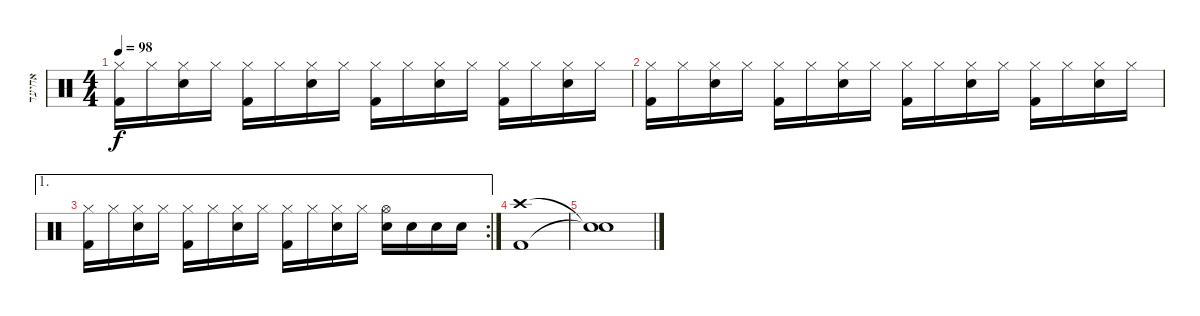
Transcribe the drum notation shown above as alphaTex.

\track ("אחיעד" "אחיעד") {instrument percussion}
\staff {score}
\articulation defaults
\ts (4 4)
\tempo 98
\clef neutral
\ks c
("Hi-Hat (closed)" "Kick (hit) 2").16{dy f} "Hi-Hat (closed)".16 ("Hi-Hat (closed)" "Snare (hit) 2").16 "Hi-Hat (closed)".16 ("Hi-Hat (closed)" "Kick (hit) 2").16 "Hi-Hat (closed)".16 ("Hi-Hat (closed)" "Snare (hit) 2").16 "Hi-Hat (closed)".16 ("Hi-Hat (closed)" "Kick (hit) 2").16 "Hi-Hat (closed)".16 ("Hi-Hat (closed)" "Snare (hit) 2").16 "Hi-Hat (closed)".16 ("Hi-Hat (closed)" "Kick (hit) 2").16 "Hi-Hat (closed)".16 ("Hi-Hat (closed)" "Snare (hit) 2").16 "Hi-Hat (closed)".16 |
("Hi-Hat (closed)" "Kick (hit) 2").16 "Hi-Hat (closed)".16 ("Hi-Hat (closed)" "Snare (hit) 2").16 "Hi-Hat (closed)".16 ("Hi-Hat (closed)" "Kick (hit) 2").16 "Hi-Hat (closed)".16 ("Hi-Hat (closed)" "Snare (hit) 2").16 "Hi-Hat (closed)".16 ("Hi-Hat (closed)" "Kick (hit) 2").16 "Hi-Hat (closed)".16 ("Hi-Hat (closed)" "Snare (hit) 2").16 "Hi-Hat (closed)".16 ("Hi-Hat (closed)" "Kick (hit) 2").16 "Hi-Hat (closed)".16 ("Hi-Hat (closed)" "Snare (hit) 2").16 "Hi-Hat (closed)".16 |
\ae 1
\rc 2
("Hi-Hat (closed)" "Kick (hit) 2").16 "Hi-Hat (closed)".16 ("Hi-Hat (closed)" "Snare (hit) 2").16 "Hi-Hat (closed)".16 ("Hi-Hat (closed)" "Kick (hit) 2").16 "Hi-Hat (closed)".16 ("Hi-Hat (closed)" "Snare (hit) 2").16 "Hi-Hat (closed)".16 ("Hi-Hat (closed)" "Kick (hit) 2").16 "Hi-Hat (closed)".16 ("Hi-Hat (closed)" "Snare (hit) 2").16 "Hi-Hat (closed)".16 ("Hi-Hat (open)" "Snare (hit) 2").16 "Snare (hit) 2".16 "Snare (hit) 2".16 "Snare (hit) 2".16 |
("Crash high (hit)" "Kick (hit) 2").1 |
("Snare (hit)"{t} "Snare (hit)"{t}).1
